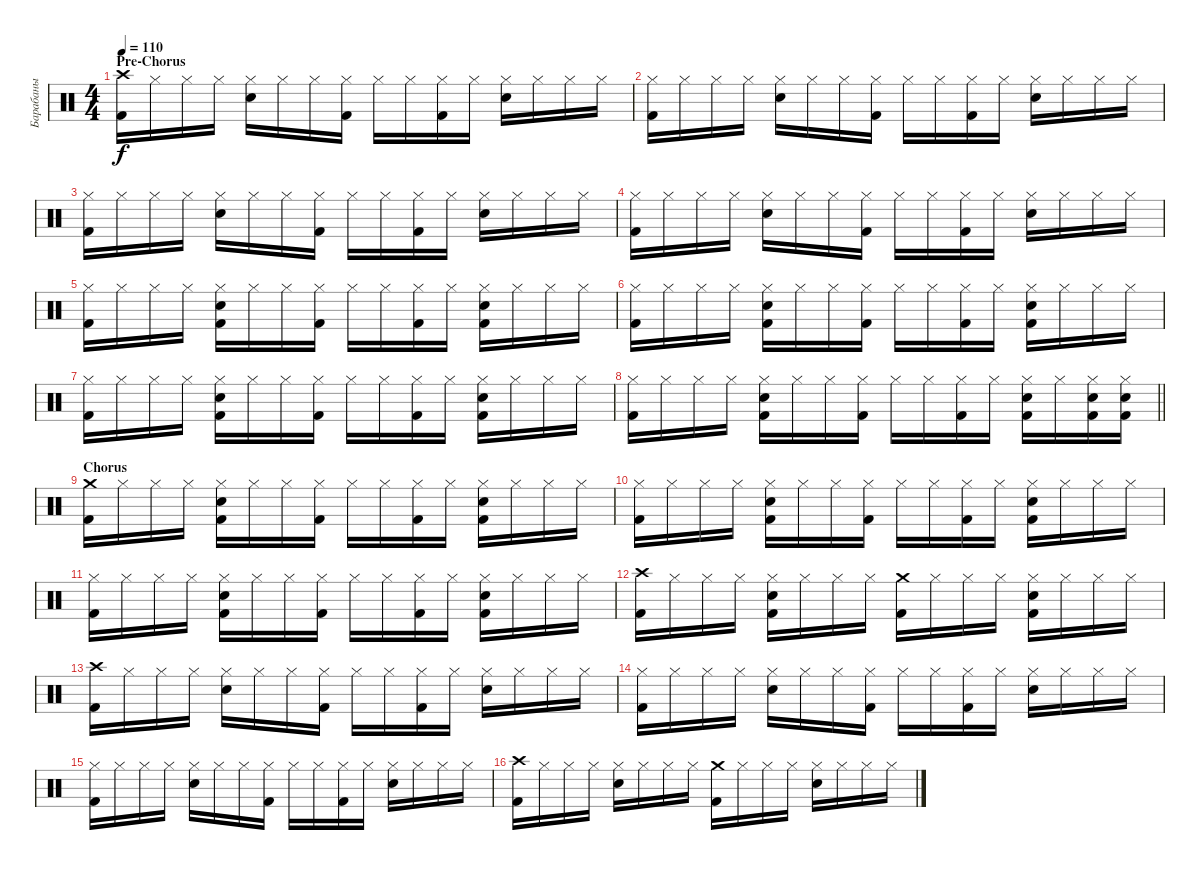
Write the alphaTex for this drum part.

\track ("Барабаны" "Барабаны") {instrument percussion}
\staff {score}
\articulation defaults
\ts (4 4)
\section ("" "Pre-Chorus")
\tempo 110
\clef neutral
\ks c
("Crash high (hit)" "Kick (hit) 2").16{dy f} "Hi-Hat (closed)".16 "Hi-Hat (closed)".16 "Hi-Hat (closed)".16 ("Hi-Hat (closed)" "Snare (hit) 2").16 "Hi-Hat (closed)".16 "Hi-Hat (closed)".16 ("Hi-Hat (closed)" "Kick (hit) 2").16 "Hi-Hat (closed)".16 "Hi-Hat (closed)".16 ("Hi-Hat (closed)" "Kick (hit) 2").16 "Hi-Hat (closed)".16 ("Hi-Hat (closed)" "Snare (hit) 2").16 "Hi-Hat (closed)".16 "Hi-Hat (closed)".16 "Hi-Hat (closed)".16 |
("Hi-Hat (closed)" "Kick (hit) 2").16 "Hi-Hat (closed)".16 "Hi-Hat (closed)".16 "Hi-Hat (closed)".16 ("Hi-Hat (closed)" "Snare (hit) 2").16 "Hi-Hat (closed)".16 "Hi-Hat (closed)".16 ("Hi-Hat (closed)" "Kick (hit) 2").16 "Hi-Hat (closed)".16 "Hi-Hat (closed)".16 ("Hi-Hat (closed)" "Kick (hit) 2").16 "Hi-Hat (closed)".16 ("Hi-Hat (closed)" "Snare (hit) 2").16 "Hi-Hat (closed)".16 "Hi-Hat (closed)".16 "Hi-Hat (closed)".16 |
("Hi-Hat (closed)" "Kick (hit) 2").16 "Hi-Hat (closed)".16 "Hi-Hat (closed)".16 "Hi-Hat (closed)".16 ("Hi-Hat (closed)" "Snare (hit) 2").16 "Hi-Hat (closed)".16 "Hi-Hat (closed)".16 ("Hi-Hat (closed)" "Kick (hit) 2").16 "Hi-Hat (closed)".16 "Hi-Hat (closed)".16 ("Hi-Hat (closed)" "Kick (hit) 2").16 "Hi-Hat (closed)".16 ("Hi-Hat (closed)" "Snare (hit) 2").16 "Hi-Hat (closed)".16 "Hi-Hat (closed)".16 "Hi-Hat (closed)".16 |
("Hi-Hat (closed)" "Kick (hit) 2").16 "Hi-Hat (closed)".16 "Hi-Hat (closed)".16 "Hi-Hat (closed)".16 ("Hi-Hat (closed)" "Snare (hit) 2").16 "Hi-Hat (closed)".16 "Hi-Hat (closed)".16 ("Hi-Hat (closed)" "Kick (hit) 2").16 "Hi-Hat (closed)".16 "Hi-Hat (closed)".16 ("Hi-Hat (closed)" "Kick (hit) 2").16 "Hi-Hat (closed)".16 ("Hi-Hat (closed)" "Snare (hit) 2").16 "Hi-Hat (closed)".16 "Hi-Hat (closed)".16 "Hi-Hat (closed)".16 |
("Hi-Hat (closed)" "Kick (hit) 2").16 "Hi-Hat (closed)".16 "Hi-Hat (closed)".16 "Hi-Hat (closed)".16 ("Hi-Hat (closed)" "Snare (hit) 2" "Kick (hit) 2").16 "Hi-Hat (closed)".16 "Hi-Hat (closed)".16 ("Hi-Hat (closed)" "Kick (hit) 2").16 "Hi-Hat (closed)".16 "Hi-Hat (closed)".16 ("Hi-Hat (closed)" "Kick (hit) 2").16 "Hi-Hat (closed)".16 ("Hi-Hat (closed)" "Snare (hit) 2" "Kick (hit) 2").16 "Hi-Hat (closed)".16 "Hi-Hat (closed)".16 "Hi-Hat (closed)".16 |
("Hi-Hat (closed)" "Kick (hit) 2").16 "Hi-Hat (closed)".16 "Hi-Hat (closed)".16 "Hi-Hat (closed)".16 ("Hi-Hat (closed)" "Snare (hit) 2" "Kick (hit) 2").16 "Hi-Hat (closed)".16 "Hi-Hat (closed)".16 ("Hi-Hat (closed)" "Kick (hit) 2").16 "Hi-Hat (closed)".16 "Hi-Hat (closed)".16 ("Hi-Hat (closed)" "Kick (hit) 2").16 "Hi-Hat (closed)".16 ("Hi-Hat (closed)" "Snare (hit) 2" "Kick (hit) 2").16 "Hi-Hat (closed)".16 "Hi-Hat (closed)".16 "Hi-Hat (closed)".16 |
("Hi-Hat (closed)" "Kick (hit) 2").16 "Hi-Hat (closed)".16 "Hi-Hat (closed)".16 "Hi-Hat (closed)".16 ("Hi-Hat (closed)" "Snare (hit) 2" "Kick (hit) 2").16 "Hi-Hat (closed)".16 "Hi-Hat (closed)".16 ("Hi-Hat (closed)" "Kick (hit) 2").16 "Hi-Hat (closed)".16 "Hi-Hat (closed)".16 ("Hi-Hat (closed)" "Kick (hit) 2").16 "Hi-Hat (closed)".16 ("Hi-Hat (closed)" "Snare (hit) 2" "Kick (hit) 2").16 "Hi-Hat (closed)".16 "Hi-Hat (closed)".16 "Hi-Hat (closed)".16 |
\barLineRight lightlight
("Hi-Hat (closed)" "Kick (hit) 2").16 "Hi-Hat (closed)".16 "Hi-Hat (closed)".16 "Hi-Hat (closed)".16 ("Hi-Hat (closed)" "Snare (hit) 2" "Kick (hit) 2").16 "Hi-Hat (closed)".16 "Hi-Hat (closed)".16 ("Hi-Hat (closed)" "Kick (hit) 2").16 "Hi-Hat (closed)".16 "Hi-Hat (closed)".16 ("Hi-Hat (closed)" "Kick (hit) 2").16 "Hi-Hat (closed)".16 ("Hi-Hat (closed)" "Snare (hit) 2" "Kick (hit) 2").16 "Hi-Hat (closed)".16 ("Hi-Hat (closed)" "Snare (hit) 2" "Kick (hit) 2").16 ("Hi-Hat (closed)" "Snare (hit) 2" "Kick (hit) 2").16 |
\section ("" "Chorus")
("Crash medium (hit)" "Kick (hit) 2").16 "Hi-Hat (closed)".16 "Hi-Hat (closed)".16 "Hi-Hat (closed)".16 ("Hi-Hat (closed)" "Snare (hit) 2" "Kick (hit) 2").16 "Hi-Hat (closed)".16 "Hi-Hat (closed)".16 ("Hi-Hat (closed)" "Kick (hit) 2").16 "Hi-Hat (closed)".16 "Hi-Hat (closed)".16 ("Hi-Hat (closed)" "Kick (hit) 2").16 "Hi-Hat (closed)".16 ("Hi-Hat (closed)" "Snare (hit) 2" "Kick (hit) 2").16 "Hi-Hat (closed)".16 "Hi-Hat (closed)".16 "Hi-Hat (closed)".16 |
("Hi-Hat (closed)" "Kick (hit) 2").16 "Hi-Hat (closed)".16 "Hi-Hat (closed)".16 "Hi-Hat (closed)".16 ("Hi-Hat (closed)" "Snare (hit) 2" "Kick (hit) 2").16 "Hi-Hat (closed)".16 "Hi-Hat (closed)".16 ("Hi-Hat (closed)" "Kick (hit) 2").16 "Hi-Hat (closed)".16 "Hi-Hat (closed)".16 ("Hi-Hat (closed)" "Kick (hit) 2").16 "Hi-Hat (closed)".16 ("Hi-Hat (closed)" "Snare (hit) 2" "Kick (hit) 2").16 "Hi-Hat (closed)".16 "Hi-Hat (closed)".16 "Hi-Hat (closed)".16 |
("Hi-Hat (closed)" "Kick (hit) 2").16 "Hi-Hat (closed)".16 "Hi-Hat (closed)".16 "Hi-Hat (closed)".16 ("Hi-Hat (closed)" "Snare (hit) 2" "Kick (hit) 2").16 "Hi-Hat (closed)".16 "Hi-Hat (closed)".16 ("Hi-Hat (closed)" "Kick (hit) 2").16 "Hi-Hat (closed)".16 "Hi-Hat (closed)".16 ("Hi-Hat (closed)" "Kick (hit) 2").16 "Hi-Hat (closed)".16 ("Hi-Hat (closed)" "Snare (hit) 2" "Kick (hit) 2").16 "Hi-Hat (closed)".16 "Hi-Hat (closed)".16 "Hi-Hat (closed)".16 |
("Crash high (hit)" "Kick (hit) 2").16 "Hi-Hat (closed)".16 "Hi-Hat (closed)".16 "Hi-Hat (closed)".16 ("Hi-Hat (closed)" "Snare (hit) 2" "Kick (hit) 2").16 "Hi-Hat (closed)".16 "Hi-Hat (closed)".16 "Hi-Hat (closed)".16 ("Crash medium (hit)" "Kick (hit) 2").16 "Hi-Hat (closed)".16 "Hi-Hat (closed)".16 "Hi-Hat (closed)".16 ("Hi-Hat (closed)" "Snare (hit) 2" "Kick (hit) 2").16 "Hi-Hat (closed)".16 "Hi-Hat (closed)".16 "Hi-Hat (closed)".16 |
("Crash high (hit)" "Kick (hit) 2").16 "Hi-Hat (closed)".16 "Hi-Hat (closed)".16 "Hi-Hat (closed)".16 ("Hi-Hat (closed)" "Snare (hit) 2").16 "Hi-Hat (closed)".16 "Hi-Hat (closed)".16 ("Hi-Hat (closed)" "Kick (hit) 2").16 "Hi-Hat (closed)".16 "Hi-Hat (closed)".16 ("Hi-Hat (closed)" "Kick (hit) 2").16 "Hi-Hat (closed)".16 ("Hi-Hat (closed)" "Snare (hit) 2").16 "Hi-Hat (closed)".16 "Hi-Hat (closed)".16 "Hi-Hat (closed)".16 |
("Hi-Hat (closed)" "Kick (hit) 2").16 "Hi-Hat (closed)".16 "Hi-Hat (closed)".16 "Hi-Hat (closed)".16 ("Hi-Hat (closed)" "Snare (hit) 2").16 "Hi-Hat (closed)".16 "Hi-Hat (closed)".16 ("Hi-Hat (closed)" "Kick (hit) 2").16 "Hi-Hat (closed)".16 "Hi-Hat (closed)".16 ("Hi-Hat (closed)" "Kick (hit) 2").16 "Hi-Hat (closed)".16 ("Hi-Hat (closed)" "Snare (hit) 2").16 "Hi-Hat (closed)".16 "Hi-Hat (closed)".16 "Hi-Hat (closed)".16 |
("Hi-Hat (closed)" "Kick (hit) 2").16 "Hi-Hat (closed)".16 "Hi-Hat (closed)".16 "Hi-Hat (closed)".16 ("Hi-Hat (closed)" "Snare (hit) 2").16 "Hi-Hat (closed)".16 "Hi-Hat (closed)".16 ("Hi-Hat (closed)" "Kick (hit) 2").16 "Hi-Hat (closed)".16 "Hi-Hat (closed)".16 ("Hi-Hat (closed)" "Kick (hit) 2").16 "Hi-Hat (closed)".16 ("Hi-Hat (closed)" "Snare (hit) 2").16 "Hi-Hat (closed)".16 "Hi-Hat (closed)".16 "Hi-Hat (closed)".16 |
("Crash high (hit)" "Kick (hit) 2").16 "Hi-Hat (closed)".16 "Hi-Hat (closed)".16 "Hi-Hat (closed)".16 ("Hi-Hat (closed)" "Snare (hit) 2").16 "Hi-Hat (closed)".16 "Hi-Hat (closed)".16 "Hi-Hat (closed)".16 ("Crash medium (hit)" "Kick (hit) 2").16 "Hi-Hat (closed)".16 "Hi-Hat (closed)".16 "Hi-Hat (closed)".16 ("Hi-Hat (closed)" "Snare (hit) 2").16 "Hi-Hat (closed)".16 "Hi-Hat (closed)".16 "Hi-Hat (closed)".16
